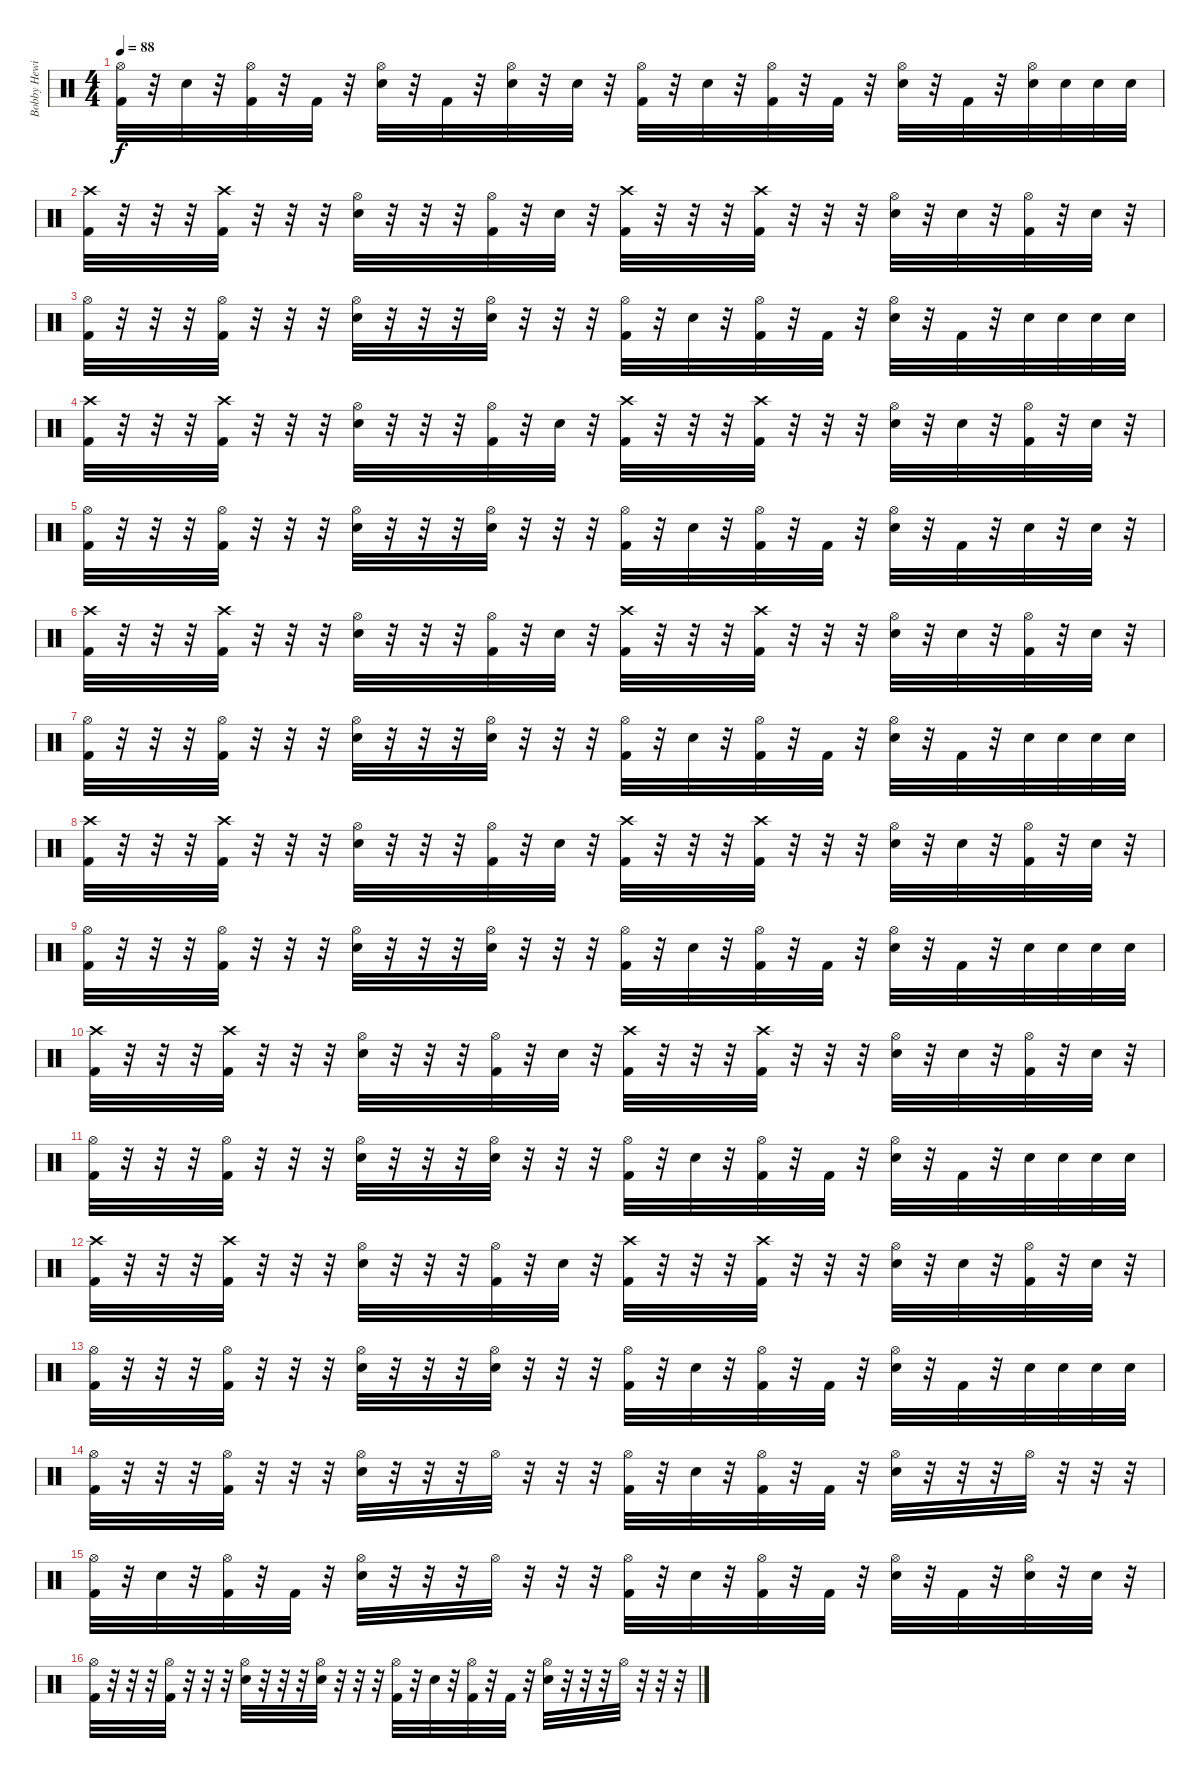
\track ("Bobby Hewit - Drums" "Bobby Hewi") {instrument percussion}
\staff {score}
\articulation defaults
\ts (4 4)
\tempo 88
\clef neutral
\ks c
("Hi-Hat (open)" "Kick (hit) 2").32{dy f} r.32 "Electric Snare (hit)".32 r.32 ("Hi-Hat (open)" "Kick (hit) 2").32 r.32 "Kick (hit) 2".32 r.32 ("Hi-Hat (open)" "Electric Snare (hit)").32 r.32 "Kick (hit) 2".32 r.32 ("Hi-Hat (open)" "Electric Snare (hit)").32 r.32 "Electric Snare (hit)".32 r.32 ("Hi-Hat (open)" "Kick (hit) 2").32 r.32 "Electric Snare (hit)".32 r.32 ("Hi-Hat (open)" "Kick (hit) 2").32 r.32 "Kick (hit) 2".32 r.32 ("Hi-Hat (open)" "Electric Snare (hit)").32 r.32 "Kick (hit) 2".32 r.32 ("Hi-Hat (open)" "Electric Snare (hit)").32 "Electric Snare (hit)".32 "Electric Snare (hit)".32 "Electric Snare (hit)".32 |
("Crash high (hit)" "Kick (hit) 2").32 r.32 r.32 r.32 ("Crash high (hit)" "Kick (hit) 2").32 r.32 r.32 r.32 ("Hi-Hat (open)" "Electric Snare (hit)").32 r.32 r.32 r.32 ("Hi-Hat (open)" "Kick (hit) 2").32 r.32 "Electric Snare (hit)".32 r.32 ("Crash high (hit)" "Kick (hit) 2").32 r.32 r.32 r.32 ("Crash high (hit)" "Kick (hit) 2").32 r.32 r.32 r.32 ("Hi-Hat (open)" "Electric Snare (hit)").32 r.32 "Electric Snare (hit)".32 r.32 ("Hi-Hat (open)" "Kick (hit) 2").32 r.32 "Electric Snare (hit)".32 r.32 |
("Hi-Hat (open)" "Kick (hit) 2").32 r.32 r.32 r.32 ("Hi-Hat (open)" "Kick (hit) 2").32 r.32 r.32 r.32 ("Hi-Hat (open)" "Electric Snare (hit)").32 r.32 r.32 r.32 ("Hi-Hat (open)" "Electric Snare (hit)").32 r.32 r.32 r.32 ("Hi-Hat (open)" "Kick (hit) 2").32 r.32 "Electric Snare (hit)".32 r.32 ("Hi-Hat (open)" "Kick (hit) 2").32 r.32 "Kick (hit) 2".32 r.32 ("Hi-Hat (open)" "Electric Snare (hit)").32 r.32 "Kick (hit) 2".32 r.32 "Electric Snare (hit)".32 "Electric Snare (hit)".32 "Electric Snare (hit)".32 "Electric Snare (hit)".32 |
("Crash high (hit)" "Kick (hit) 2").32 r.32 r.32 r.32 ("Crash high (hit)" "Kick (hit) 2").32 r.32 r.32 r.32 ("Hi-Hat (open)" "Electric Snare (hit)").32 r.32 r.32 r.32 ("Hi-Hat (open)" "Kick (hit) 2").32 r.32 "Electric Snare (hit)".32 r.32 ("Crash high (hit)" "Kick (hit) 2").32 r.32 r.32 r.32 ("Crash high (hit)" "Kick (hit) 2").32 r.32 r.32 r.32 ("Hi-Hat (open)" "Electric Snare (hit)").32 r.32 "Electric Snare (hit)".32 r.32 ("Hi-Hat (open)" "Kick (hit) 2").32 r.32 "Electric Snare (hit)".32 r.32 |
("Hi-Hat (open)" "Kick (hit) 2").32 r.32 r.32 r.32 ("Hi-Hat (open)" "Kick (hit) 2").32 r.32 r.32 r.32 ("Hi-Hat (open)" "Electric Snare (hit)").32 r.32 r.32 r.32 ("Hi-Hat (open)" "Electric Snare (hit)").32 r.32 r.32 r.32 ("Hi-Hat (open)" "Kick (hit) 2").32 r.32 "Electric Snare (hit)".32 r.32 ("Hi-Hat (open)" "Kick (hit) 2").32 r.32 "Kick (hit) 2".32 r.32 ("Hi-Hat (open)" "Electric Snare (hit)").32 r.32 "Kick (hit) 2".32 r.32 "Electric Snare (hit)".32 r.32 "Electric Snare (hit)".32 r.32 |
("Crash high (hit)" "Kick (hit) 2").32 r.32 r.32 r.32 ("Crash high (hit)" "Kick (hit) 2").32 r.32 r.32 r.32 ("Hi-Hat (open)" "Electric Snare (hit)").32 r.32 r.32 r.32 ("Hi-Hat (open)" "Kick (hit) 2").32 r.32 "Electric Snare (hit)".32 r.32 ("Crash high (hit)" "Kick (hit) 2").32 r.32 r.32 r.32 ("Crash high (hit)" "Kick (hit) 2").32 r.32 r.32 r.32 ("Hi-Hat (open)" "Electric Snare (hit)").32 r.32 "Electric Snare (hit)".32 r.32 ("Hi-Hat (open)" "Kick (hit) 2").32 r.32 "Electric Snare (hit)".32 r.32 |
("Hi-Hat (open)" "Kick (hit) 2").32 r.32 r.32 r.32 ("Hi-Hat (open)" "Kick (hit) 2").32 r.32 r.32 r.32 ("Hi-Hat (open)" "Electric Snare (hit)").32 r.32 r.32 r.32 ("Hi-Hat (open)" "Electric Snare (hit)").32 r.32 r.32 r.32 ("Hi-Hat (open)" "Kick (hit) 2").32 r.32 "Electric Snare (hit)".32 r.32 ("Hi-Hat (open)" "Kick (hit) 2").32 r.32 "Kick (hit) 2".32 r.32 ("Hi-Hat (open)" "Electric Snare (hit)").32 r.32 "Kick (hit) 2".32 r.32 "Electric Snare (hit)".32 "Electric Snare (hit)".32 "Electric Snare (hit)".32 "Electric Snare (hit)".32 |
("Crash high (hit)" "Kick (hit) 2").32 r.32 r.32 r.32 ("Crash high (hit)" "Kick (hit) 2").32 r.32 r.32 r.32 ("Hi-Hat (open)" "Electric Snare (hit)").32 r.32 r.32 r.32 ("Hi-Hat (open)" "Kick (hit) 2").32 r.32 "Electric Snare (hit)".32 r.32 ("Crash high (hit)" "Kick (hit) 2").32 r.32 r.32 r.32 ("Crash high (hit)" "Kick (hit) 2").32 r.32 r.32 r.32 ("Hi-Hat (open)" "Electric Snare (hit)").32 r.32 "Electric Snare (hit)".32 r.32 ("Hi-Hat (open)" "Kick (hit) 2").32 r.32 "Electric Snare (hit)".32 r.32 |
("Hi-Hat (open)" "Kick (hit) 2").32 r.32 r.32 r.32 ("Hi-Hat (open)" "Kick (hit) 2").32 r.32 r.32 r.32 ("Hi-Hat (open)" "Electric Snare (hit)").32 r.32 r.32 r.32 ("Hi-Hat (open)" "Electric Snare (hit)").32 r.32 r.32 r.32 ("Hi-Hat (open)" "Kick (hit) 2").32 r.32 "Electric Snare (hit)".32 r.32 ("Hi-Hat (open)" "Kick (hit) 2").32 r.32 "Kick (hit) 2".32 r.32 ("Hi-Hat (open)" "Electric Snare (hit)").32 r.32 "Kick (hit) 2".32 r.32 "Electric Snare (hit)".32 "Electric Snare (hit)".32 "Electric Snare (hit)".32 "Electric Snare (hit)".32 |
("Crash high (hit)" "Kick (hit) 2").32 r.32 r.32 r.32 ("Crash high (hit)" "Kick (hit) 2").32 r.32 r.32 r.32 ("Hi-Hat (open)" "Electric Snare (hit)").32 r.32 r.32 r.32 ("Hi-Hat (open)" "Kick (hit) 2").32 r.32 "Electric Snare (hit)".32 r.32 ("Crash high (hit)" "Kick (hit) 2").32 r.32 r.32 r.32 ("Crash high (hit)" "Kick (hit) 2").32 r.32 r.32 r.32 ("Hi-Hat (open)" "Electric Snare (hit)").32 r.32 "Electric Snare (hit)".32 r.32 ("Hi-Hat (open)" "Kick (hit) 2").32 r.32 "Electric Snare (hit)".32 r.32 |
("Hi-Hat (open)" "Kick (hit) 2").32 r.32 r.32 r.32 ("Hi-Hat (open)" "Kick (hit) 2").32 r.32 r.32 r.32 ("Hi-Hat (open)" "Electric Snare (hit)").32 r.32 r.32 r.32 ("Hi-Hat (open)" "Electric Snare (hit)").32 r.32 r.32 r.32 ("Hi-Hat (open)" "Kick (hit) 2").32 r.32 "Electric Snare (hit)".32 r.32 ("Hi-Hat (open)" "Kick (hit) 2").32 r.32 "Kick (hit) 2".32 r.32 ("Hi-Hat (open)" "Electric Snare (hit)").32 r.32 "Kick (hit) 2".32 r.32 "Electric Snare (hit)".32 "Electric Snare (hit)".32 "Electric Snare (hit)".32 "Electric Snare (hit)".32 |
("Crash high (hit)" "Kick (hit) 2").32 r.32 r.32 r.32 ("Crash high (hit)" "Kick (hit) 2").32 r.32 r.32 r.32 ("Hi-Hat (open)" "Electric Snare (hit)").32 r.32 r.32 r.32 ("Hi-Hat (open)" "Kick (hit) 2").32 r.32 "Electric Snare (hit)".32 r.32 ("Crash high (hit)" "Kick (hit) 2").32 r.32 r.32 r.32 ("Crash high (hit)" "Kick (hit) 2").32 r.32 r.32 r.32 ("Hi-Hat (open)" "Electric Snare (hit)").32 r.32 "Electric Snare (hit)".32 r.32 ("Hi-Hat (open)" "Kick (hit) 2").32 r.32 "Electric Snare (hit)".32 r.32 |
("Hi-Hat (open)" "Kick (hit) 2").32 r.32 r.32 r.32 ("Hi-Hat (open)" "Kick (hit) 2").32 r.32 r.32 r.32 ("Hi-Hat (open)" "Electric Snare (hit)").32 r.32 r.32 r.32 ("Hi-Hat (open)" "Electric Snare (hit)").32 r.32 r.32 r.32 ("Hi-Hat (open)" "Kick (hit) 2").32 r.32 "Electric Snare (hit)".32 r.32 ("Hi-Hat (open)" "Kick (hit) 2").32 r.32 "Kick (hit) 2".32 r.32 ("Hi-Hat (open)" "Electric Snare (hit)").32 r.32 "Kick (hit) 2".32 r.32 "Electric Snare (hit)".32 "Electric Snare (hit)".32 "Electric Snare (hit)".32 "Electric Snare (hit)".32 |
("Hi-Hat (open)" "Kick (hit) 2").32 r.32 r.32 r.32 ("Hi-Hat (open)" "Kick (hit) 2").32 r.32 r.32 r.32 ("Hi-Hat (open)" "Electric Snare (hit)").32 r.32 r.32 r.32 "Hi-Hat (open)".32 r.32 r.32 r.32 ("Hi-Hat (open)" "Kick (hit) 2").32 r.32 "Electric Snare (hit)".32 r.32 ("Hi-Hat (open)" "Kick (hit) 2").32 r.32 "Kick (hit) 2".32 r.32 ("Hi-Hat (open)" "Electric Snare (hit)").32 r.32 r.32 r.32 "Hi-Hat (open)".32 r.32 r.32 r.32 |
("Hi-Hat (open)" "Kick (hit) 2").32 r.32 "Electric Snare (hit)".32 r.32 ("Hi-Hat (open)" "Kick (hit) 2").32 r.32 "Kick (hit) 2".32 r.32 ("Hi-Hat (open)" "Electric Snare (hit)").32 r.32 r.32 r.32 "Hi-Hat (open)".32 r.32 r.32 r.32 ("Hi-Hat (open)" "Kick (hit) 2").32 r.32 "Electric Snare (hit)".32 r.32 ("Hi-Hat (open)" "Kick (hit) 2").32 r.32 "Kick (hit) 2".32 r.32 ("Hi-Hat (open)" "Electric Snare (hit)").32 r.32 "Kick (hit) 2".32 r.32 ("Hi-Hat (open)" "Electric Snare (hit)").32 r.32 "Electric Snare (hit)".32 r.32 |
("Hi-Hat (open)" "Kick (hit) 2").32 r.32 r.32 r.32 ("Hi-Hat (open)" "Kick (hit) 2").32 r.32 r.32 r.32 ("Hi-Hat (open)" "Electric Snare (hit)").32 r.32 r.32 r.32 ("Hi-Hat (open)" "Electric Snare (hit)").32 r.32 r.32 r.32 ("Hi-Hat (open)" "Kick (hit) 2").32 r.32 "Electric Snare (hit)".32 r.32 ("Hi-Hat (open)" "Kick (hit) 2").32 r.32 "Kick (hit) 2".32 r.32 ("Hi-Hat (open)" "Electric Snare (hit)").32 r.32 r.32 r.32 "Hi-Hat (open)".32 r.32 r.32 r.32
